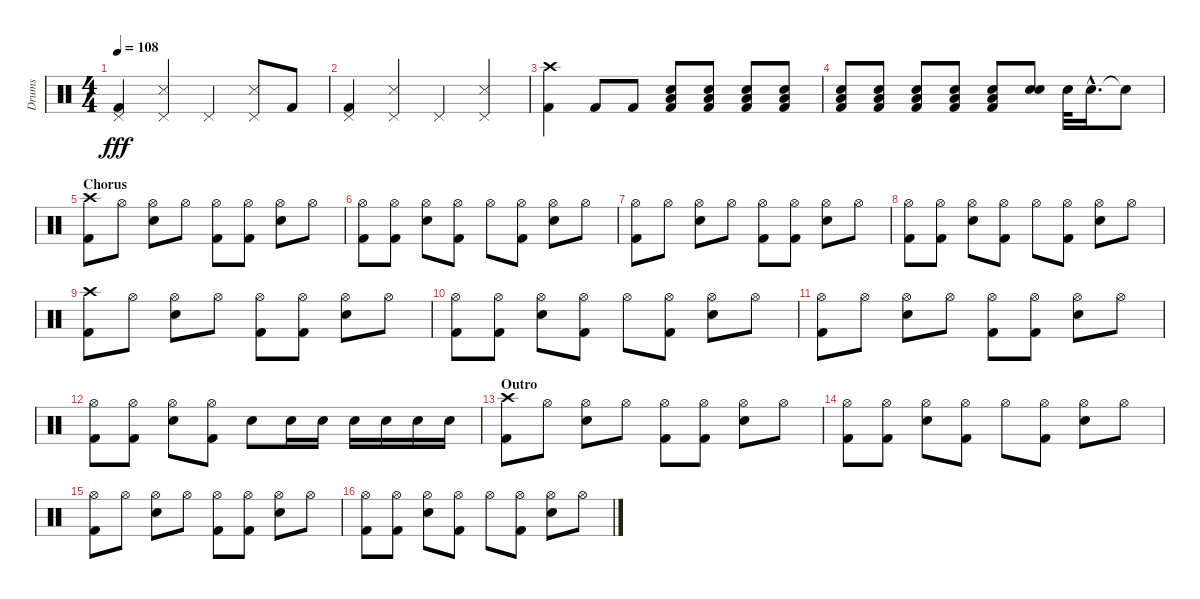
\track ("Drums" "Drums") {instrument percussion}
\staff {score}
\articulation defaults
\ts (4 4)
\tempo 108
\clef neutral
\ks c
("Pedal Hi-Hat (hit)" "Kick (hit) 2").4{dy fff} ("Pedal Hi-Hat (hit)" "Snare (side stick) 3").4 "Pedal Hi-Hat (hit)".4 ("Pedal Hi-Hat (hit)" "Snare (side stick) 3").8 "Kick (hit) 2".8 |
("Pedal Hi-Hat (hit)" "Kick (hit) 2").4 ("Pedal Hi-Hat (hit)" "Snare (side stick) 3").4 "Pedal Hi-Hat (hit)".4 ("Pedal Hi-Hat (hit)" "Snare (side stick) 3").4 |
("Crash high (hit)" "Kick (hit) 2").4 "Kick (hit) 2".8 "Kick (hit) 2".8 ("Low Floor Tom (hit)" "Snare (hit) 2" "Kick (hit) 2").8 ("Low Floor Tom (hit)" "Snare (hit) 2" "Kick (hit) 2").8 ("Low Floor Tom (hit)" "Snare (hit) 2" "Kick (hit) 2").8 ("Low Floor Tom (hit)" "Snare (hit) 2" "Kick (hit) 2").8 |
("Low Floor Tom (hit)" "Snare (hit) 2" "Kick (hit) 2").8 ("Low Floor Tom (hit)" "Snare (hit) 2" "Kick (hit) 2").8 ("Low Floor Tom (hit)" "Snare (hit) 2" "Kick (hit) 2").8 ("Low Floor Tom (hit)" "Snare (hit) 2" "Kick (hit) 2").8 ("Low Floor Tom (hit)" "Snare (hit) 2" "Kick (hit) 2").8 ("Snare (hit) 2" "Snare (hit) 2").8 "Snare (hit) 2".32 "Snare (hit) 2"{hac}.16{d} "Snare (hit)"{t}.8 |
\section ("" "Chorus")
("Crash high (hit)" "Kick (hit) 2").8 "Hi-Hat (open)".8 ("Hi-Hat (open)" "Snare (hit) 2").8 "Hi-Hat (open)".8 ("Hi-Hat (open)" "Kick (hit) 2").8 ("Hi-Hat (open)" "Kick (hit) 2").8 ("Hi-Hat (open)" "Snare (hit) 2").8 "Hi-Hat (open)".8 |
("Hi-Hat (open)" "Kick (hit) 2").8 ("Hi-Hat (open)" "Kick (hit) 2").8 ("Hi-Hat (open)" "Snare (hit) 2").8 ("Hi-Hat (open)" "Kick (hit) 2").8 "Hi-Hat (open)".8 ("Hi-Hat (open)" "Kick (hit) 2").8 ("Hi-Hat (open)" "Snare (hit) 2").8 "Hi-Hat (open)".8 |
("Hi-Hat (open)" "Kick (hit) 2").8 "Hi-Hat (open)".8 ("Hi-Hat (open)" "Snare (hit) 2").8 "Hi-Hat (open)".8 ("Hi-Hat (open)" "Kick (hit) 2").8 ("Hi-Hat (open)" "Kick (hit) 2").8 ("Hi-Hat (open)" "Snare (hit) 2").8 "Hi-Hat (open)".8 |
("Hi-Hat (open)" "Kick (hit) 2").8 ("Hi-Hat (open)" "Kick (hit) 2").8 ("Hi-Hat (open)" "Snare (hit) 2").8 ("Hi-Hat (open)" "Kick (hit) 2").8 "Hi-Hat (open)".8 ("Hi-Hat (open)" "Kick (hit) 2").8 ("Hi-Hat (open)" "Snare (hit) 2").8 "Hi-Hat (open)".8 |
("Crash high (hit)" "Kick (hit) 2").8 "Hi-Hat (open)".8 ("Hi-Hat (open)" "Snare (hit) 2").8 "Hi-Hat (open)".8 ("Hi-Hat (open)" "Kick (hit) 2").8 ("Hi-Hat (open)" "Kick (hit) 2").8 ("Hi-Hat (open)" "Snare (hit) 2").8 "Hi-Hat (open)".8 |
("Hi-Hat (open)" "Kick (hit) 2").8 ("Hi-Hat (open)" "Kick (hit) 2").8 ("Hi-Hat (open)" "Snare (hit) 2").8 ("Hi-Hat (open)" "Kick (hit) 2").8 "Hi-Hat (open)".8 ("Hi-Hat (open)" "Kick (hit) 2").8 ("Hi-Hat (open)" "Snare (hit) 2").8 "Hi-Hat (open)".8 |
("Hi-Hat (open)" "Kick (hit) 2").8 "Hi-Hat (open)".8 ("Hi-Hat (open)" "Snare (hit) 2").8 "Hi-Hat (open)".8 ("Hi-Hat (open)" "Kick (hit) 2").8 ("Hi-Hat (open)" "Kick (hit) 2").8 ("Hi-Hat (open)" "Snare (hit) 2").8 "Hi-Hat (open)".8 |
("Hi-Hat (open)" "Kick (hit) 2").8 ("Hi-Hat (open)" "Kick (hit) 2").8 ("Hi-Hat (open)" "Snare (hit) 2").8 ("Hi-Hat (open)" "Kick (hit) 2").8 "Snare (hit) 2".8 "Snare (hit) 2".16 "Snare (hit) 2".16 "Snare (hit) 2".16 "Snare (hit) 2".16 "Snare (hit) 2".16 "Snare (hit) 2".16 |
\section ("" "Outro")
("Crash high (hit)" "Kick (hit) 2").8 "Hi-Hat (open)".8 ("Hi-Hat (open)" "Snare (hit) 2").8 "Hi-Hat (open)".8 ("Hi-Hat (open)" "Kick (hit) 2").8 ("Hi-Hat (open)" "Kick (hit) 2").8 ("Hi-Hat (open)" "Snare (hit) 2").8 "Hi-Hat (open)".8 |
("Hi-Hat (open)" "Kick (hit) 2").8 ("Hi-Hat (open)" "Kick (hit) 2").8 ("Hi-Hat (open)" "Snare (hit) 2").8 ("Hi-Hat (open)" "Kick (hit) 2").8 "Hi-Hat (open)".8 ("Hi-Hat (open)" "Kick (hit) 2").8 ("Hi-Hat (open)" "Snare (hit) 2").8 "Hi-Hat (open)".8 |
("Hi-Hat (open)" "Kick (hit) 2").8 "Hi-Hat (open)".8 ("Hi-Hat (open)" "Snare (hit) 2").8 "Hi-Hat (open)".8 ("Hi-Hat (open)" "Kick (hit) 2").8 ("Hi-Hat (open)" "Kick (hit) 2").8 ("Hi-Hat (open)" "Snare (hit) 2").8 "Hi-Hat (open)".8 |
("Hi-Hat (open)" "Kick (hit) 2").8 ("Hi-Hat (open)" "Kick (hit) 2").8 ("Hi-Hat (open)" "Snare (hit) 2").8 ("Hi-Hat (open)" "Kick (hit) 2").8 "Hi-Hat (open)".8 ("Hi-Hat (open)" "Kick (hit) 2").8 ("Hi-Hat (open)" "Snare (hit) 2").8 "Hi-Hat (open)".8
